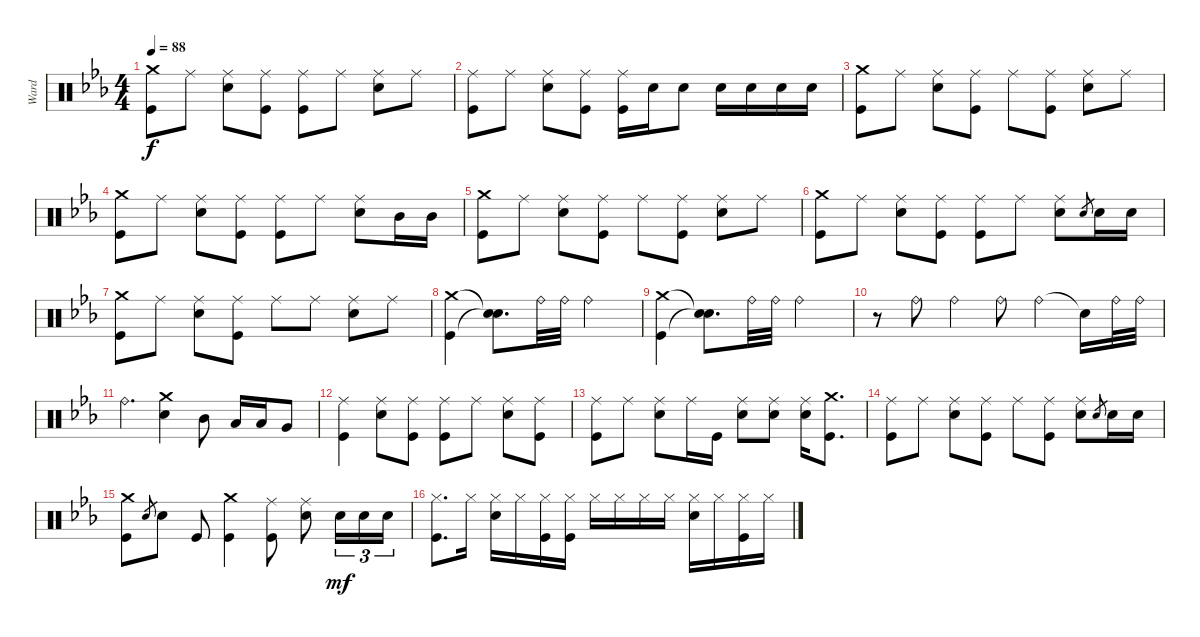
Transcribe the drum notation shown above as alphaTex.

\track ("Ward" "Ward") {instrument percussion}
\staff {score}
\articulation defaults
\ts (4 4)
\tempo 88
\clef neutral
\ks cminor
("Crash medium (hit)" "Kick (hit)").8{dy f} "Ride (middle)".8 ("Ride (middle)" "Snare (hit) 2").8 ("Ride (middle)" "Kick (hit)").8 ("Ride (middle)" "Kick (hit)").8 "Ride (middle)".8 ("Ride (middle)" "Snare (hit) 2").8 "Ride (middle)".8 |
("Ride (middle)" "Kick (hit)").8 "Ride (middle)".8 ("Ride (middle)" "Snare (hit) 2").8 ("Ride (middle)" "Kick (hit)").8 ("Ride (middle)" "Kick (hit)").16 "Snare (hit) 2".16 "Snare (hit) 2".8 "Snare (hit) 2".16 "Snare (hit) 2".16 "Snare (hit) 2".16 "Snare (hit) 2".16 |
("Crash medium (hit)" "Kick (hit)").8 "Ride (middle)".8 ("Ride (middle)" "Snare (hit) 2").8 ("Ride (middle)" "Kick (hit)").8 "Ride (middle)".8 ("Ride (middle)" "Kick (hit)").8 ("Ride (middle)" "Snare (hit) 2").8 "Ride (middle)".8 |
("Crash medium (hit)" "Kick (hit)").8 "Ride (middle)".8 ("Ride (middle)" "Snare (hit) 2").8 ("Ride (middle)" "Kick (hit)").8 ("Ride (middle)" "Kick (hit)").8 "Ride (middle)".8 ("Ride (middle)" "Snare (hit) 2").8 "Mid Tom (hit)".16 "Mid Tom (hit)".16 |
("Crash medium (hit)" "Kick (hit)").8 "Ride (middle)".8 ("Ride (middle)" "Snare (hit) 2").8 ("Ride (middle)" "Kick (hit)").8 "Ride (middle)".8 ("Ride (middle)" "Kick (hit)").8 ("Ride (middle)" "Snare (hit) 2").8 "Ride (middle)".8 |
("Crash medium (hit)" "Kick (hit)").8 "Ride (middle)".8 ("Ride (middle)" "Snare (hit) 2").8 ("Ride (middle)" "Kick (hit)").8 ("Ride (middle)" "Kick (hit)").8 "Ride (middle)".8 ("Ride (middle)" "Snare (hit) 2").8 "Snare (hit) 2".8{gr} "Snare (hit) 2".16 "Snare (hit) 2".16 |
("Crash medium (hit)" "Kick (hit)").8 "Ride (middle)".8 ("Ride (middle)" "Snare (hit) 2").8 ("Ride (middle)" "Kick (hit)").8 "Ride (middle)".8 "Ride (middle)".8 ("Ride (middle)" "Snare (hit) 2").8 "Ride (middle)".8 |
("Crash medium (hit)" "Kick (hit)").4 ("Snare (hit)"{t} "Snare (hit)"{t}).8{d} "Ride (bell)".32 "Ride (bell)".32 "Ride (bell)".2 |
("Crash medium (hit)" "Kick (hit)").4 ("Snare (hit)"{t} "Snare (hit)"{t}).8{d} "Ride (bell)".32 "Ride (bell)".32 "Ride (bell)".2 |
r.8 "Ride (bell)".8 "Ride (bell)".4 "Ride (bell)".8 "Ride (bell)".4 "Snare (hit)"{t}.16 "Ride (bell)".32 "Ride (bell)".32 |
"Ride (bell)".4{d} ("Crash medium (hit)" "Snare (hit) 2").4 "Mid Tom (hit)".8 "Low Tom (hit)".16 "Low Tom (hit)".16 "Very Low Tom (hit)".8 |
("Ride (middle)" "Kick (hit)").4 ("Ride (middle)" "Snare (hit) 2").8 ("Ride (middle)" "Kick (hit)").8 ("Ride (middle)" "Kick (hit)").8 "Ride (middle)".8 ("Ride (middle)" "Snare (hit) 2").8 ("Ride (middle)" "Kick (hit)").8 |
("Ride (middle)" "Kick (hit)").8 "Ride (middle)".8 ("Ride (middle)" "Snare (hit) 2").8 "Ride (middle)".16 "Kick (hit)".16 ("Ride (middle)" "Snare (hit) 2").8 ("Ride (middle)" "Snare (hit) 2").8 ("Ride (middle)" "Snare (hit) 2").16 ("Crash medium (hit)" "Kick (hit)").8{d} |
("Ride (middle)" "Kick (hit)").8 "Ride (middle)".8 ("Ride (middle)" "Snare (hit) 2").8 ("Ride (middle)" "Kick (hit)").8 "Ride (middle)".8 ("Ride (middle)" "Kick (hit)").8 ("Ride (middle)" "Snare (hit) 2").8 "Snare (hit) 2".8{gr} "Snare (hit) 2".16 "Snare (hit) 2".16 |
("Crash medium (hit)" "Kick (hit)").8 "Snare (hit) 2".8{gr} "Snare (hit) 2".8 "Kick (hit)".8 ("Crash medium (hit)" "Kick (hit)").4 ("Ride (middle)" "Kick (hit)").8 ("Ride (middle)" "Snare (hit) 2").8 "Snare (hit) 2".16{tu (3 2) dy mf} "Snare (hit) 2".16{tu (3 2)} "Snare (hit) 2".16{tu (3 2)} |
("Hi-Hat (closed)" "Kick (hit)").8{d} "Hi-Hat (closed)".16 ("Hi-Hat (closed)" "Snare (hit) 2").16 "Hi-Hat (closed)".16 ("Hi-Hat (closed)" "Kick (hit)").16 ("Hi-Hat (closed)" "Kick (hit)").16 "Hi-Hat (closed)".16 "Hi-Hat (closed)".16 "Hi-Hat (closed)".16 "Hi-Hat (closed)".16 ("Hi-Hat (closed)" "Snare (hit) 2").16 "Hi-Hat (closed)".16 ("Hi-Hat (closed)" "Kick (hit)").16 "Hi-Hat (closed)".16
